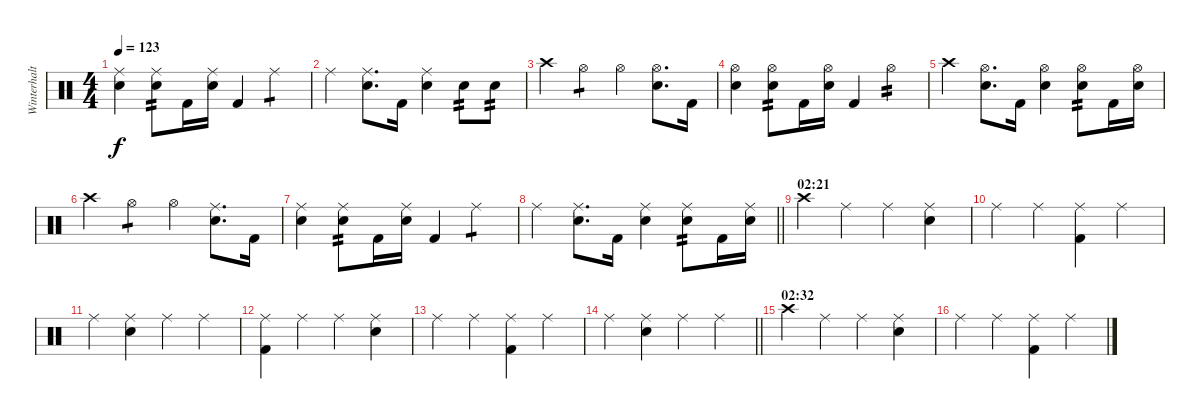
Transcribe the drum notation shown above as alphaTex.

\track ("Winterhalten" "Winterhalt") {instrument percussion}
\staff {score}
\articulation defaults
\ts (4 4)
\tempo 123
\clef neutral
\ks c
("Ride (middle)" "Snare (hit) 2").4{dy f} ("Ride (middle)" "Snare (hit) 2").8{tp 2} "Kick (hit) 2".16 ("Ride (middle)" "Snare (hit) 2").16 "Kick (hit) 2".4 "Ride (middle)".4{tp 1} |
"Ride (middle)".4 ("Ride (middle)" "Snare (hit) 2").8{d} "Kick (hit) 2".16 ("Ride (middle)" "Snare (hit) 2").4 "Snare (hit) 2".8{tp 2} "Snare (hit) 2".8{tp 2} |
"Crash high (hit)".4 "Hi-Hat (open)".4{tp 1} "Hi-Hat (open)".4 ("Hi-Hat (open)" "Snare (hit) 2").8{d} "Kick (hit) 2".16 |
("Hi-Hat (open)" "Snare (hit) 2").4 ("Hi-Hat (open)" "Snare (hit) 2").8{tp 2} "Kick (hit) 2".16 ("Hi-Hat (open)" "Snare (hit) 2").16 "Kick (hit) 2".4 "Hi-Hat (open)".4{tp 2} |
"Crash high (hit)".4 ("Hi-Hat (open)" "Snare (hit) 2").8{d} "Kick (hit) 2".16 ("Hi-Hat (open)" "Snare (hit) 2").4 ("Hi-Hat (open)" "Snare (hit) 2").8{tp 2} "Kick (hit) 2".16 ("Hi-Hat (open)" "Snare (hit) 2").16 |
"Crash high (hit)".4 "Hi-Hat (open)".4{tp 1} "Hi-Hat (open)".4 ("Ride (middle)" "Snare (hit) 2").8{d} "Kick (hit) 2".16 |
("Ride (middle)" "Snare (hit) 2").4 ("Ride (middle)" "Snare (hit) 2").8{tp 2} "Kick (hit) 2".16 ("Ride (middle)" "Snare (hit) 2").16 "Kick (hit) 2".4 "Ride (middle)".4{tp 1} |
\barLineRight lightlight "Ride (middle)".4
("Ride (middle)" "Snare (hit) 2").8{d} "Kick (hit) 2".16 ("Ride (middle)" "Snare (hit) 2").4 ("Ride (middle)" "Snare (hit) 2").8{tp 2} "Kick (hit) 2".16 ("Ride (middle)" "Snare (hit) 2").16 |
\section ("" "02:21")
"Crash high (hit)".4 "Ride (middle)".4 "Ride (middle)".4 ("Ride (middle)" "Snare (hit) 2").4 |
"Ride (middle)".4 "Ride (middle)".4 ("Ride (middle)" "Kick (hit) 2").4 "Ride (middle)".4 |
"Ride (middle)".4 ("Ride (middle)" "Snare (hit) 2").4 "Ride (middle)".4 "Ride (middle)".4 |
("Ride (middle)" "Kick (hit) 2").4 "Ride (middle)".4 "Ride (middle)".4 ("Ride (middle)" "Snare (hit) 2").4 |
"Ride (middle)".4 "Ride (middle)".4 ("Ride (middle)" "Kick (hit) 2").4 "Ride (middle)".4 |
\barLineRight lightlight "Ride (middle)".4
("Ride (middle)" "Snare (hit) 2").4 "Ride (middle)".4 "Ride (middle)".4 |
\section ("" "02:32")
"Crash high (hit)".4 "Ride (middle)".4 "Ride (middle)".4 ("Ride (middle)" "Snare (hit) 2").4 |
"Ride (middle)".4 "Ride (middle)".4 ("Ride (middle)" "Kick (hit) 2").4 "Ride (middle)".4
